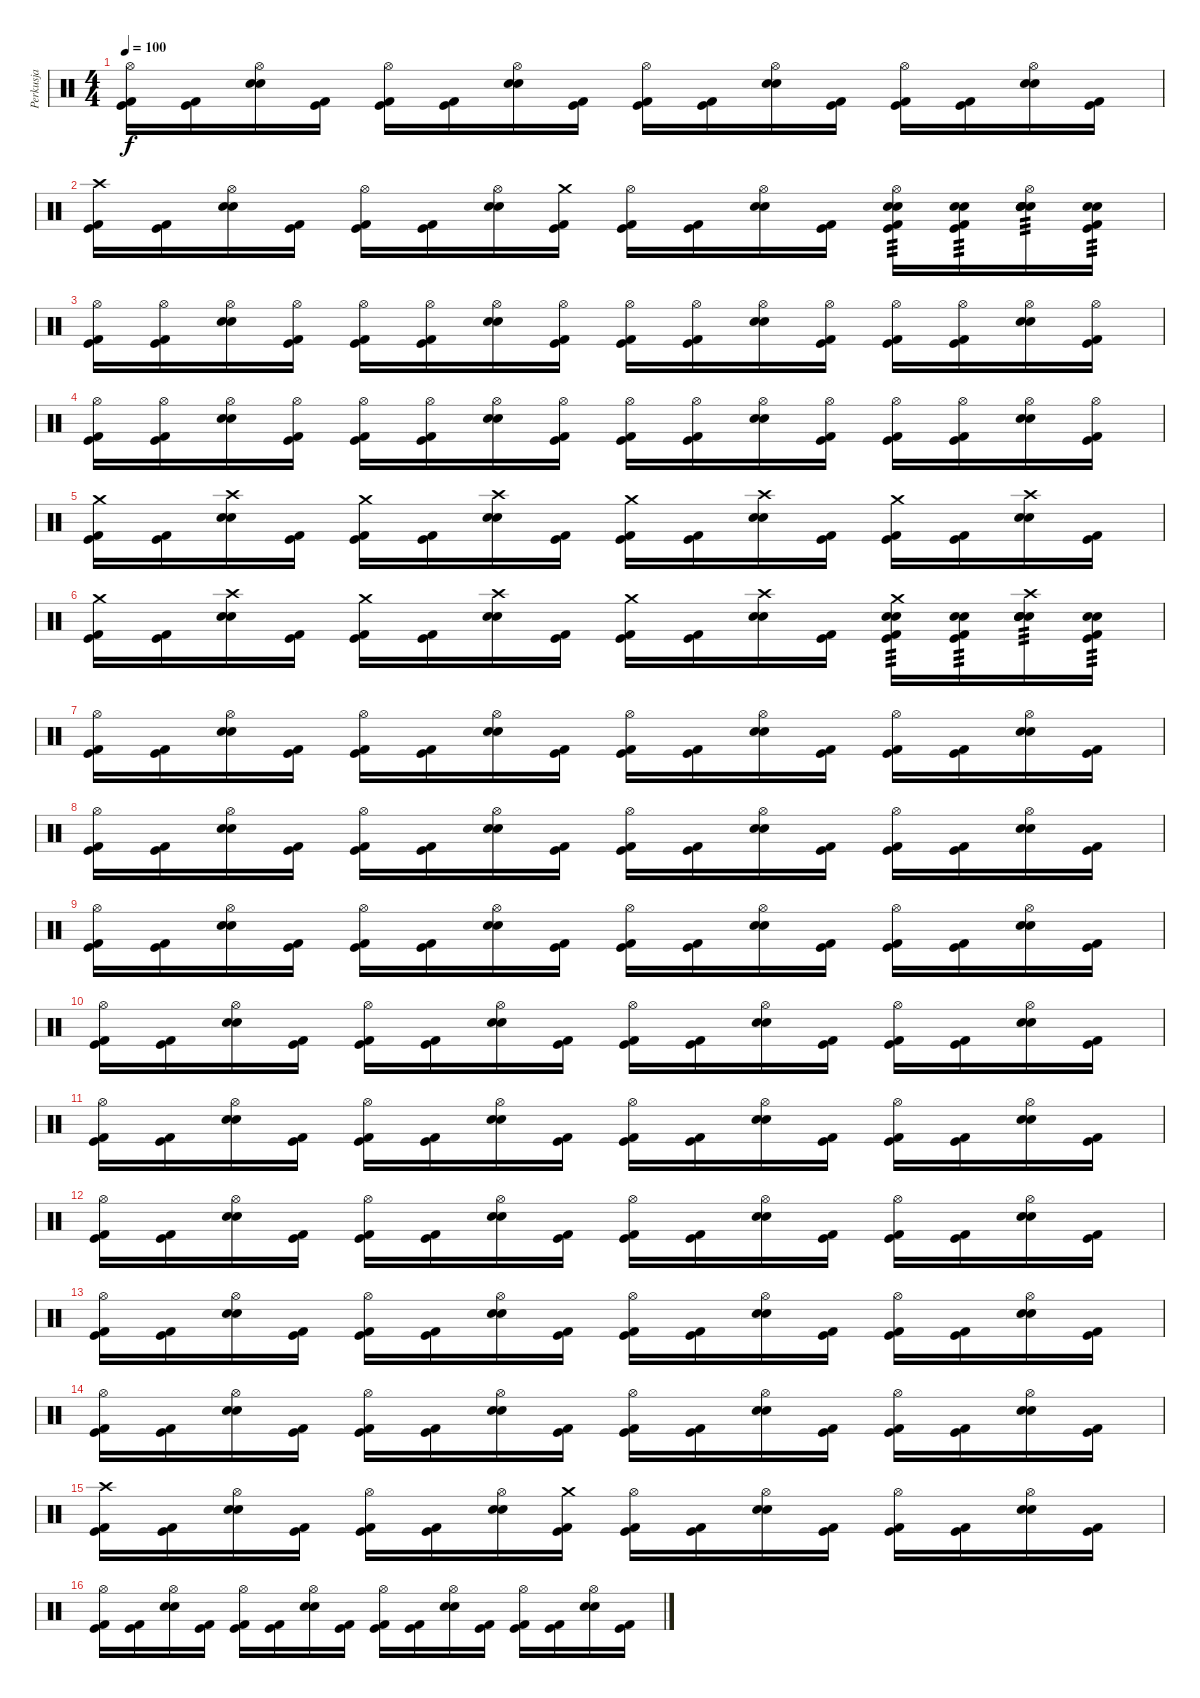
\track ("Perkusja" "Perkusja") {instrument percussion}
\staff {score}
\articulation defaults
\ts (4 4)
\tempo 100
\clef neutral
\ks c
("Kick (hit) 2" "Kick (hit)" "Hi-Hat (open)").16{dy f} ("Kick (hit) 2" "Kick (hit)").16 ("Snare (hit) 2" "Electric Snare (hit)" "Hi-Hat (open)").16 ("Kick (hit) 2" "Kick (hit)").16 ("Kick (hit) 2" "Kick (hit)" "Hi-Hat (open)").16 ("Kick (hit) 2" "Kick (hit)").16 ("Snare (hit) 2" "Electric Snare (hit)" "Hi-Hat (open)").16 ("Kick (hit) 2" "Kick (hit)").16 ("Kick (hit) 2" "Kick (hit)" "Hi-Hat (open)").16 ("Kick (hit) 2" "Kick (hit)").16 ("Snare (hit) 2" "Electric Snare (hit)" "Hi-Hat (open)").16 ("Kick (hit) 2" "Kick (hit)").16 ("Kick (hit) 2" "Kick (hit)" "Hi-Hat (open)").16 ("Kick (hit) 2" "Kick (hit)").16 ("Snare (hit) 2" "Electric Snare (hit)" "Hi-Hat (open)").16 ("Kick (hit) 2" "Kick (hit)").16 |
("Kick (hit) 2" "Kick (hit)" "Crash high (hit)").16 ("Kick (hit) 2" "Kick (hit)").16 ("Snare (hit) 2" "Electric Snare (hit)" "Hi-Hat (open)").16 ("Kick (hit) 2" "Kick (hit)").16 ("Kick (hit) 2" "Kick (hit)" "Hi-Hat (open)").16 ("Kick (hit) 2" "Kick (hit)").16 ("Snare (hit) 2" "Electric Snare (hit)" "Hi-Hat (open)").16 ("Kick (hit) 2" "Kick (hit)" "Crash medium (hit)").16 ("Kick (hit) 2" "Kick (hit)" "Hi-Hat (open)").16 ("Kick (hit) 2" "Kick (hit)").16 ("Snare (hit) 2" "Electric Snare (hit)" "Hi-Hat (open)").16 ("Kick (hit) 2" "Kick (hit)").16 ("Kick (hit) 2" "Kick (hit)" "Hi-Hat (open)" "Snare (hit) 2" "Electric Snare (hit)").16{tp 3} ("Kick (hit) 2" "Kick (hit)" "Snare (hit) 2" "Electric Snare (hit)").16{tp 3} ("Snare (hit) 2" "Electric Snare (hit)" "Hi-Hat (open)" "Snare (hit) 2" "Electric Snare (hit)").16{tp 3} ("Kick (hit) 2" "Kick (hit)" "Snare (hit) 2" "Electric Snare (hit)").16{tp 3} |
("Kick (hit) 2" "Kick (hit)" "Hi-Hat (open)").16 ("Kick (hit) 2" "Kick (hit)" "Hi-Hat (open)").16 ("Snare (hit) 2" "Electric Snare (hit)" "Hi-Hat (open)").16 ("Kick (hit) 2" "Kick (hit)" "Hi-Hat (open)").16 ("Kick (hit) 2" "Kick (hit)" "Hi-Hat (open)").16 ("Kick (hit) 2" "Kick (hit)" "Hi-Hat (open)").16 ("Snare (hit) 2" "Electric Snare (hit)" "Hi-Hat (open)").16 ("Kick (hit) 2" "Kick (hit)" "Hi-Hat (open)").16 ("Kick (hit) 2" "Kick (hit)" "Hi-Hat (open)").16 ("Kick (hit) 2" "Kick (hit)" "Hi-Hat (open)").16 ("Snare (hit) 2" "Electric Snare (hit)" "Hi-Hat (open)").16 ("Kick (hit) 2" "Kick (hit)" "Hi-Hat (open)").16 ("Kick (hit) 2" "Kick (hit)" "Hi-Hat (open)").16 ("Kick (hit) 2" "Kick (hit)" "Hi-Hat (open)").16 ("Snare (hit) 2" "Electric Snare (hit)" "Hi-Hat (open)").16 ("Kick (hit) 2" "Kick (hit)" "Hi-Hat (open)").16 |
("Kick (hit) 2" "Kick (hit)" "Hi-Hat (open)").16 ("Kick (hit) 2" "Kick (hit)" "Hi-Hat (open)").16 ("Snare (hit) 2" "Electric Snare (hit)" "Hi-Hat (open)").16 ("Kick (hit) 2" "Kick (hit)" "Hi-Hat (open)").16 ("Kick (hit) 2" "Kick (hit)" "Hi-Hat (open)").16 ("Kick (hit) 2" "Kick (hit)" "Hi-Hat (open)").16 ("Snare (hit) 2" "Electric Snare (hit)" "Hi-Hat (open)").16 ("Kick (hit) 2" "Kick (hit)" "Hi-Hat (open)").16 ("Kick (hit) 2" "Kick (hit)" "Hi-Hat (open)").16 ("Kick (hit) 2" "Kick (hit)" "Hi-Hat (open)").16 ("Snare (hit) 2" "Electric Snare (hit)" "Hi-Hat (open)").16 ("Kick (hit) 2" "Kick (hit)" "Hi-Hat (open)").16 ("Kick (hit) 2" "Kick (hit)" "Hi-Hat (open)").16 ("Kick (hit) 2" "Kick (hit)" "Hi-Hat (open)").16 ("Snare (hit) 2" "Electric Snare (hit)" "Hi-Hat (open)").16 ("Kick (hit) 2" "Kick (hit)" "Hi-Hat (open)").16 |
("Kick (hit) 2" "Kick (hit)" "Crash medium (hit)").16 ("Kick (hit) 2" "Kick (hit)").16 ("Snare (hit) 2" "Electric Snare (hit)" "Crash high (hit)").16 ("Kick (hit) 2" "Kick (hit)").16 ("Kick (hit) 2" "Kick (hit)" "Crash medium (hit)").16 ("Kick (hit) 2" "Kick (hit)").16 ("Snare (hit) 2" "Electric Snare (hit)" "Crash high (hit)").16 ("Kick (hit) 2" "Kick (hit)").16 ("Kick (hit) 2" "Kick (hit)" "Crash medium (hit)").16 ("Kick (hit) 2" "Kick (hit)").16 ("Snare (hit) 2" "Electric Snare (hit)" "Crash high (hit)").16 ("Kick (hit) 2" "Kick (hit)").16 ("Kick (hit) 2" "Kick (hit)" "Crash medium (hit)").16 ("Kick (hit) 2" "Kick (hit)").16 ("Snare (hit) 2" "Electric Snare (hit)" "Crash high (hit)").16 ("Kick (hit) 2" "Kick (hit)").16 |
("Kick (hit) 2" "Kick (hit)" "Crash medium (hit)").16 ("Kick (hit) 2" "Kick (hit)").16 ("Snare (hit) 2" "Electric Snare (hit)" "Crash high (hit)").16 ("Kick (hit) 2" "Kick (hit)").16 ("Kick (hit) 2" "Kick (hit)" "Crash medium (hit)").16 ("Kick (hit) 2" "Kick (hit)").16 ("Snare (hit) 2" "Electric Snare (hit)" "Crash high (hit)").16 ("Kick (hit) 2" "Kick (hit)").16 ("Kick (hit) 2" "Kick (hit)" "Crash medium (hit)").16 ("Kick (hit) 2" "Kick (hit)").16 ("Snare (hit) 2" "Electric Snare (hit)" "Crash high (hit)").16 ("Kick (hit) 2" "Kick (hit)").16 ("Kick (hit) 2" "Kick (hit)" "Crash medium (hit)" "Snare (hit) 2" "Electric Snare (hit)").16{tp 3} ("Kick (hit) 2" "Kick (hit)" "Snare (hit) 2" "Electric Snare (hit)").16{tp 3} ("Snare (hit) 2" "Electric Snare (hit)" "Crash high (hit)" "Snare (hit) 2" "Electric Snare (hit)").16{tp 3} ("Kick (hit) 2" "Kick (hit)" "Snare (hit) 2" "Electric Snare (hit)").16{tp 3} |
("Kick (hit) 2" "Kick (hit)" "Hi-Hat (open)").16 ("Kick (hit) 2" "Kick (hit)").16 ("Snare (hit) 2" "Electric Snare (hit)" "Hi-Hat (open)").16 ("Kick (hit) 2" "Kick (hit)").16 ("Kick (hit) 2" "Kick (hit)" "Hi-Hat (open)").16 ("Kick (hit) 2" "Kick (hit)").16 ("Snare (hit) 2" "Electric Snare (hit)" "Hi-Hat (open)").16 ("Kick (hit) 2" "Kick (hit)").16 ("Kick (hit) 2" "Kick (hit)" "Hi-Hat (open)").16 ("Kick (hit) 2" "Kick (hit)").16 ("Snare (hit) 2" "Electric Snare (hit)" "Hi-Hat (open)").16 ("Kick (hit) 2" "Kick (hit)").16 ("Kick (hit) 2" "Kick (hit)" "Hi-Hat (open)").16 ("Kick (hit) 2" "Kick (hit)").16 ("Snare (hit) 2" "Electric Snare (hit)" "Hi-Hat (open)").16 ("Kick (hit) 2" "Kick (hit)").16 |
("Kick (hit) 2" "Kick (hit)" "Hi-Hat (open)").16 ("Kick (hit) 2" "Kick (hit)").16 ("Snare (hit) 2" "Electric Snare (hit)" "Hi-Hat (open)").16 ("Kick (hit) 2" "Kick (hit)").16 ("Kick (hit) 2" "Kick (hit)" "Hi-Hat (open)").16 ("Kick (hit) 2" "Kick (hit)").16 ("Snare (hit) 2" "Electric Snare (hit)" "Hi-Hat (open)").16 ("Kick (hit) 2" "Kick (hit)").16 ("Kick (hit) 2" "Kick (hit)" "Hi-Hat (open)").16 ("Kick (hit) 2" "Kick (hit)").16 ("Snare (hit) 2" "Electric Snare (hit)" "Hi-Hat (open)").16 ("Kick (hit) 2" "Kick (hit)").16 ("Kick (hit) 2" "Kick (hit)" "Hi-Hat (open)").16 ("Kick (hit) 2" "Kick (hit)").16 ("Snare (hit) 2" "Electric Snare (hit)" "Hi-Hat (open)").16 ("Kick (hit) 2" "Kick (hit)").16 |
("Kick (hit) 2" "Kick (hit)" "Hi-Hat (open)").16 ("Kick (hit) 2" "Kick (hit)").16 ("Snare (hit) 2" "Electric Snare (hit)" "Hi-Hat (open)").16 ("Kick (hit) 2" "Kick (hit)").16 ("Kick (hit) 2" "Kick (hit)" "Hi-Hat (open)").16 ("Kick (hit) 2" "Kick (hit)").16 ("Snare (hit) 2" "Electric Snare (hit)" "Hi-Hat (open)").16 ("Kick (hit) 2" "Kick (hit)").16 ("Kick (hit) 2" "Kick (hit)" "Hi-Hat (open)").16 ("Kick (hit) 2" "Kick (hit)").16 ("Snare (hit) 2" "Electric Snare (hit)" "Hi-Hat (open)").16 ("Kick (hit) 2" "Kick (hit)").16 ("Kick (hit) 2" "Kick (hit)" "Hi-Hat (open)").16 ("Kick (hit) 2" "Kick (hit)").16 ("Snare (hit) 2" "Electric Snare (hit)" "Hi-Hat (open)").16 ("Kick (hit) 2" "Kick (hit)").16 |
("Kick (hit) 2" "Kick (hit)" "Hi-Hat (open)").16 ("Kick (hit) 2" "Kick (hit)").16 ("Snare (hit) 2" "Electric Snare (hit)" "Hi-Hat (open)").16 ("Kick (hit) 2" "Kick (hit)").16 ("Kick (hit) 2" "Kick (hit)" "Hi-Hat (open)").16 ("Kick (hit) 2" "Kick (hit)").16 ("Snare (hit) 2" "Electric Snare (hit)" "Hi-Hat (open)").16 ("Kick (hit) 2" "Kick (hit)").16 ("Kick (hit) 2" "Kick (hit)" "Hi-Hat (open)").16 ("Kick (hit) 2" "Kick (hit)").16 ("Snare (hit) 2" "Electric Snare (hit)" "Hi-Hat (open)").16 ("Kick (hit) 2" "Kick (hit)").16 ("Kick (hit) 2" "Kick (hit)" "Hi-Hat (open)").16 ("Kick (hit) 2" "Kick (hit)").16 ("Snare (hit) 2" "Electric Snare (hit)" "Hi-Hat (open)").16 ("Kick (hit) 2" "Kick (hit)").16 |
("Kick (hit) 2" "Kick (hit)" "Hi-Hat (open)").16 ("Kick (hit) 2" "Kick (hit)").16 ("Snare (hit) 2" "Electric Snare (hit)" "Hi-Hat (open)").16 ("Kick (hit) 2" "Kick (hit)").16 ("Kick (hit) 2" "Kick (hit)" "Hi-Hat (open)").16 ("Kick (hit) 2" "Kick (hit)").16 ("Snare (hit) 2" "Electric Snare (hit)" "Hi-Hat (open)").16 ("Kick (hit) 2" "Kick (hit)").16 ("Kick (hit) 2" "Kick (hit)" "Hi-Hat (open)").16 ("Kick (hit) 2" "Kick (hit)").16 ("Snare (hit) 2" "Electric Snare (hit)" "Hi-Hat (open)").16 ("Kick (hit) 2" "Kick (hit)").16 ("Kick (hit) 2" "Kick (hit)" "Hi-Hat (open)").16 ("Kick (hit) 2" "Kick (hit)").16 ("Snare (hit) 2" "Electric Snare (hit)" "Hi-Hat (open)").16 ("Kick (hit) 2" "Kick (hit)").16 |
("Kick (hit) 2" "Kick (hit)" "Hi-Hat (open)").16 ("Kick (hit) 2" "Kick (hit)").16 ("Snare (hit) 2" "Electric Snare (hit)" "Hi-Hat (open)").16 ("Kick (hit) 2" "Kick (hit)").16 ("Kick (hit) 2" "Kick (hit)" "Hi-Hat (open)").16 ("Kick (hit) 2" "Kick (hit)").16 ("Snare (hit) 2" "Electric Snare (hit)" "Hi-Hat (open)").16 ("Kick (hit) 2" "Kick (hit)").16 ("Kick (hit) 2" "Kick (hit)" "Hi-Hat (open)").16 ("Kick (hit) 2" "Kick (hit)").16 ("Snare (hit) 2" "Electric Snare (hit)" "Hi-Hat (open)").16 ("Kick (hit) 2" "Kick (hit)").16 ("Kick (hit) 2" "Kick (hit)" "Hi-Hat (open)").16 ("Kick (hit) 2" "Kick (hit)").16 ("Snare (hit) 2" "Electric Snare (hit)" "Hi-Hat (open)").16 ("Kick (hit) 2" "Kick (hit)").16 |
("Kick (hit) 2" "Kick (hit)" "Hi-Hat (open)").16 ("Kick (hit) 2" "Kick (hit)").16 ("Snare (hit) 2" "Electric Snare (hit)" "Hi-Hat (open)").16 ("Kick (hit) 2" "Kick (hit)").16 ("Kick (hit) 2" "Kick (hit)" "Hi-Hat (open)").16 ("Kick (hit) 2" "Kick (hit)").16 ("Snare (hit) 2" "Electric Snare (hit)" "Hi-Hat (open)").16 ("Kick (hit) 2" "Kick (hit)").16 ("Kick (hit) 2" "Kick (hit)" "Hi-Hat (open)").16 ("Kick (hit) 2" "Kick (hit)").16 ("Snare (hit) 2" "Electric Snare (hit)" "Hi-Hat (open)").16 ("Kick (hit) 2" "Kick (hit)").16 ("Kick (hit) 2" "Kick (hit)" "Hi-Hat (open)").16 ("Kick (hit) 2" "Kick (hit)").16 ("Snare (hit) 2" "Electric Snare (hit)" "Hi-Hat (open)").16 ("Kick (hit) 2" "Kick (hit)").16 |
("Kick (hit) 2" "Kick (hit)" "Hi-Hat (open)").16 ("Kick (hit) 2" "Kick (hit)").16 ("Snare (hit) 2" "Electric Snare (hit)" "Hi-Hat (open)").16 ("Kick (hit) 2" "Kick (hit)").16 ("Kick (hit) 2" "Kick (hit)" "Hi-Hat (open)").16 ("Kick (hit) 2" "Kick (hit)").16 ("Snare (hit) 2" "Electric Snare (hit)" "Hi-Hat (open)").16 ("Kick (hit) 2" "Kick (hit)").16 ("Kick (hit) 2" "Kick (hit)" "Hi-Hat (open)").16 ("Kick (hit) 2" "Kick (hit)").16 ("Snare (hit) 2" "Electric Snare (hit)" "Hi-Hat (open)").16 ("Kick (hit) 2" "Kick (hit)").16 ("Kick (hit) 2" "Kick (hit)" "Hi-Hat (open)").16 ("Kick (hit) 2" "Kick (hit)").16 ("Snare (hit) 2" "Electric Snare (hit)" "Hi-Hat (open)").16 ("Kick (hit) 2" "Kick (hit)").16 |
("Kick (hit) 2" "Kick (hit)" "Crash high (hit)").16 ("Kick (hit) 2" "Kick (hit)").16 ("Snare (hit) 2" "Electric Snare (hit)" "Hi-Hat (open)").16 ("Kick (hit) 2" "Kick (hit)").16 ("Kick (hit) 2" "Kick (hit)" "Hi-Hat (open)").16 ("Kick (hit) 2" "Kick (hit)").16 ("Snare (hit) 2" "Electric Snare (hit)" "Hi-Hat (open)").16 ("Kick (hit) 2" "Kick (hit)" "Crash medium (hit)").16 ("Kick (hit) 2" "Kick (hit)" "Hi-Hat (open)").16 ("Kick (hit) 2" "Kick (hit)").16 ("Snare (hit) 2" "Electric Snare (hit)" "Hi-Hat (open)").16 ("Kick (hit) 2" "Kick (hit)").16 ("Kick (hit) 2" "Kick (hit)" "Hi-Hat (open)").16 ("Kick (hit) 2" "Kick (hit)").16 ("Snare (hit) 2" "Electric Snare (hit)" "Hi-Hat (open)").16 ("Kick (hit) 2" "Kick (hit)").16 |
("Kick (hit) 2" "Kick (hit)" "Hi-Hat (open)").16 ("Kick (hit) 2" "Kick (hit)").16 ("Snare (hit) 2" "Electric Snare (hit)" "Hi-Hat (open)").16 ("Kick (hit) 2" "Kick (hit)").16 ("Kick (hit) 2" "Kick (hit)" "Hi-Hat (open)").16 ("Kick (hit) 2" "Kick (hit)").16 ("Snare (hit) 2" "Electric Snare (hit)" "Hi-Hat (open)").16 ("Kick (hit) 2" "Kick (hit)").16 ("Kick (hit) 2" "Kick (hit)" "Hi-Hat (open)").16 ("Kick (hit) 2" "Kick (hit)").16 ("Snare (hit) 2" "Electric Snare (hit)" "Hi-Hat (open)").16 ("Kick (hit) 2" "Kick (hit)").16 ("Kick (hit) 2" "Kick (hit)" "Hi-Hat (open)").16 ("Kick (hit) 2" "Kick (hit)").16 ("Snare (hit) 2" "Electric Snare (hit)" "Hi-Hat (open)").16 ("Kick (hit) 2" "Kick (hit)").16
